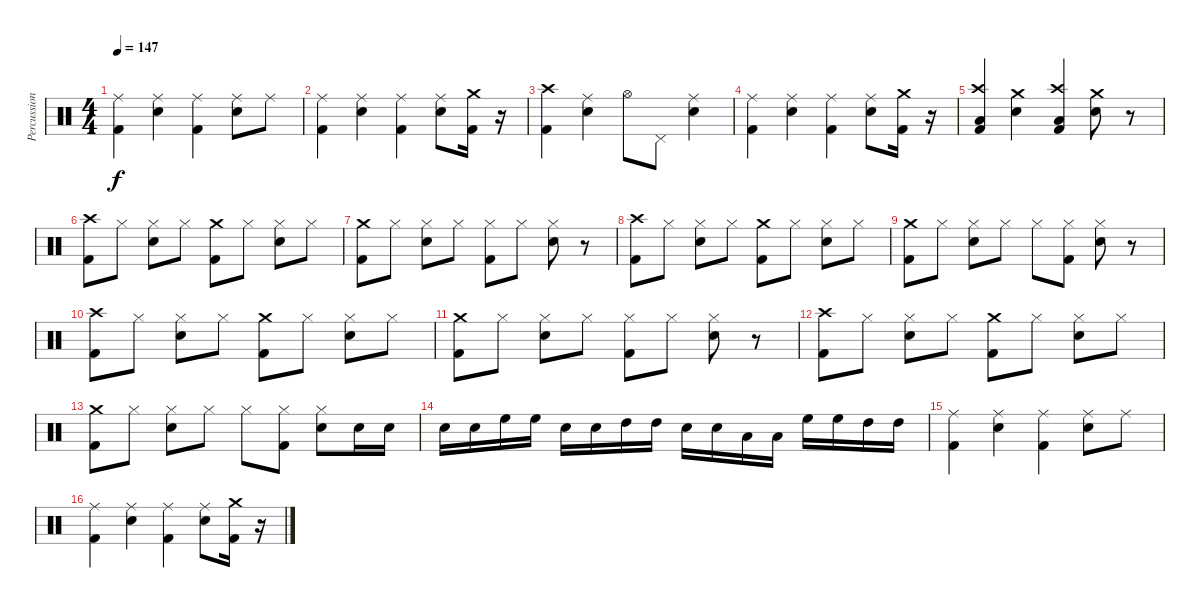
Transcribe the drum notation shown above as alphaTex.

\track ("Percussions" "Percussion") {instrument percussion}
\staff {score}
\articulation defaults
\ts (4 4)
\tempo 147
\clef neutral
\ks c
("Ride (middle)" "Kick (hit) 2").4{dy f} ("Ride (middle)" "Electric Snare (hit)").4 ("Ride (middle)" "Kick (hit) 2").4 ("Ride (middle)" "Electric Snare (hit)").8 "Ride (middle)".8 |
("Ride (middle)" "Kick (hit) 2").4 ("Ride (middle)" "Electric Snare (hit)").4 ("Ride (middle)" "Kick (hit) 2").4 ("Ride (middle)" "Electric Snare (hit)").8 ("Crash medium (hit)" "Kick (hit) 2").16 r.16 |
("Crash high (hit)" "Kick (hit) 2").4 ("Ride (middle)" "Electric Snare (hit)").4 "Hi-Hat (open)".8 "Pedal Hi-Hat (hit)".8 ("Ride (middle)" "Electric Snare (hit)").4 |
("Ride (middle)" "Kick (hit) 2").4 ("Ride (middle)" "Electric Snare (hit)").4 ("Ride (middle)" "Kick (hit) 2").4 ("Ride (middle)" "Electric Snare (hit)").8 ("Crash medium (hit)" "Kick (hit) 2").16 r.16 |
("Crash high (hit)" "Low Tom (hit)" "Kick (hit) 2").4 ("Crash medium (hit)" "Electric Snare (hit)").4 ("Crash high (hit)" "Low Tom (hit)" "Kick (hit) 2").4 ("Crash medium (hit)" "Electric Snare (hit)").8 r.8 |
("Crash high (hit)" "Kick (hit) 2").8 "Hi-Hat (closed)".8 ("Hi-Hat (closed)" "Electric Snare (hit)").8 "Hi-Hat (closed)".8 ("Crash medium (hit)" "Kick (hit) 2").8 "Hi-Hat (closed)".8 ("Hi-Hat (closed)" "Electric Snare (hit)").8 "Hi-Hat (closed)".8 |
("Crash medium (hit)" "Kick (hit) 2").8 "Hi-Hat (closed)".8 ("Hi-Hat (closed)" "Electric Snare (hit)").8 "Hi-Hat (closed)".8 ("Hi-Hat (closed)" "Kick (hit) 2").8 "Hi-Hat (closed)".8 ("Hi-Hat (closed)" "Electric Snare (hit)").8 r.8 |
("Crash high (hit)" "Kick (hit) 2").8 "Hi-Hat (closed)".8 ("Hi-Hat (closed)" "Electric Snare (hit)").8 "Hi-Hat (closed)".8 ("Crash medium (hit)" "Kick (hit) 2").8 "Hi-Hat (closed)".8 ("Hi-Hat (closed)" "Electric Snare (hit)").8 "Hi-Hat (closed)".8 |
("Crash medium (hit)" "Kick (hit) 2").8 "Hi-Hat (closed)".8 ("Hi-Hat (closed)" "Electric Snare (hit)").8 "Hi-Hat (closed)".8 "Hi-Hat (closed)".8 ("Hi-Hat (closed)" "Kick (hit) 2").8 ("Hi-Hat (closed)" "Electric Snare (hit)").8 r.8 |
("Crash high (hit)" "Kick (hit) 2").8 "Hi-Hat (closed)".8 ("Hi-Hat (closed)" "Electric Snare (hit)").8 "Hi-Hat (closed)".8 ("Crash medium (hit)" "Kick (hit) 2").8 "Hi-Hat (closed)".8 ("Hi-Hat (closed)" "Electric Snare (hit)").8 "Hi-Hat (closed)".8 |
("Crash medium (hit)" "Kick (hit) 2").8 "Hi-Hat (closed)".8 ("Hi-Hat (closed)" "Electric Snare (hit)").8 "Hi-Hat (closed)".8 ("Hi-Hat (closed)" "Kick (hit) 2").8 "Hi-Hat (closed)".8 ("Hi-Hat (closed)" "Electric Snare (hit)").8 r.8 |
("Crash high (hit)" "Kick (hit) 2").8 "Hi-Hat (closed)".8 ("Hi-Hat (closed)" "Electric Snare (hit)").8 "Hi-Hat (closed)".8 ("Crash medium (hit)" "Kick (hit) 2").8 "Hi-Hat (closed)".8 ("Hi-Hat (closed)" "Electric Snare (hit)").8 "Hi-Hat (closed)".8 |
("Crash medium (hit)" "Kick (hit) 2").8 "Hi-Hat (closed)".8 ("Hi-Hat (closed)" "Electric Snare (hit)").8 "Hi-Hat (closed)".8 "Hi-Hat (closed)".8 ("Hi-Hat (closed)" "Kick (hit) 2").8 ("Hi-Hat (closed)" "Electric Snare (hit)").8 "Electric Snare (hit)".16 "Electric Snare (hit)".16 |
"Electric Snare (hit)".16 "Electric Snare (hit)".16 "High Floor Tom (hit)".16 "High Floor Tom (hit)".16 "Electric Snare (hit)".16 "Electric Snare (hit)".16 "High Tom (hit)".16 "High Tom (hit)".16 "Electric Snare (hit)".16 "Electric Snare (hit)".16 "Low Tom (hit)".16 "Low Tom (hit)".16 "High Floor Tom (hit)".16 "High Floor Tom (hit)".16 "High Tom (hit)".16 "High Tom (hit)".16 |
("Ride (middle)" "Kick (hit) 2").4 ("Ride (middle)" "Electric Snare (hit)").4 ("Ride (middle)" "Kick (hit) 2").4 ("Ride (middle)" "Electric Snare (hit)").8 "Ride (middle)".8 |
("Ride (middle)" "Kick (hit) 2").4 ("Ride (middle)" "Electric Snare (hit)").4 ("Ride (middle)" "Kick (hit) 2").4 ("Ride (middle)" "Electric Snare (hit)").8 ("Crash medium (hit)" "Kick (hit) 2").16 r.16
